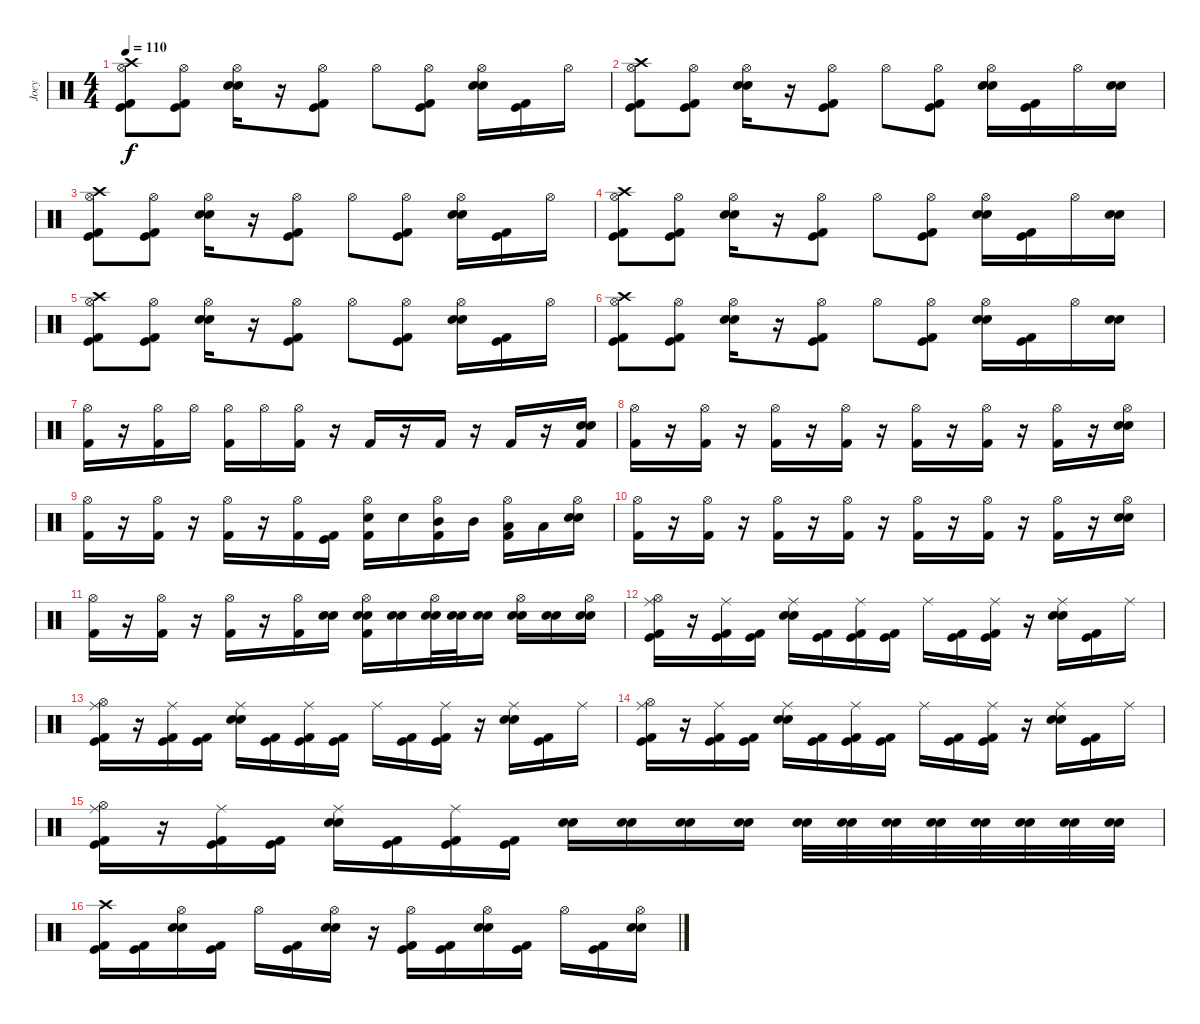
\track ("Joey" "Joey") {instrument percussion}
\staff {score}
\articulation defaults
\ts (4 4)
\tempo 110
\clef neutral
\ks c
("Crash high (hit)" "Hi-Hat (open)" "Kick (hit)" "Kick (hit) 2").8{dy f} ("Hi-Hat (open)" "Kick (hit)" "Kick (hit) 2").8 ("Hi-Hat (open)" "Snare (hit) 2" "Electric Snare (hit)").16 r.16 ("Hi-Hat (open)" "Kick (hit)" "Kick (hit) 2").8 "Hi-Hat (open)".8 ("Hi-Hat (open)" "Kick (hit)" "Kick (hit) 2").8 ("Hi-Hat (open)" "Snare (hit) 2" "Electric Snare (hit)").16 ("Kick (hit)" "Kick (hit) 2").16 "Hi-Hat (open)".16 |
("Crash high (hit)" "Hi-Hat (open)" "Kick (hit)" "Kick (hit) 2").8 ("Hi-Hat (open)" "Kick (hit)" "Kick (hit) 2").8 ("Hi-Hat (open)" "Snare (hit) 2" "Electric Snare (hit)").16 r.16 ("Hi-Hat (open)" "Kick (hit)" "Kick (hit) 2").8 "Hi-Hat (open)".8 ("Hi-Hat (open)" "Kick (hit)" "Kick (hit) 2").8 ("Hi-Hat (open)" "Snare (hit) 2" "Electric Snare (hit)").16 ("Kick (hit)" "Kick (hit) 2").16 "Hi-Hat (open)".16 ("Snare (hit) 2" "Electric Snare (hit)").16 |
("Crash high (hit)" "Hi-Hat (open)" "Kick (hit)" "Kick (hit) 2").8 ("Hi-Hat (open)" "Kick (hit)" "Kick (hit) 2").8 ("Hi-Hat (open)" "Snare (hit) 2" "Electric Snare (hit)").16 r.16 ("Hi-Hat (open)" "Kick (hit)" "Kick (hit) 2").8 "Hi-Hat (open)".8 ("Hi-Hat (open)" "Kick (hit)" "Kick (hit) 2").8 ("Hi-Hat (open)" "Snare (hit) 2" "Electric Snare (hit)").16 ("Kick (hit)" "Kick (hit) 2").16 "Hi-Hat (open)".16 |
("Crash high (hit)" "Hi-Hat (open)" "Kick (hit)" "Kick (hit) 2").8 ("Hi-Hat (open)" "Kick (hit)" "Kick (hit) 2").8 ("Hi-Hat (open)" "Snare (hit) 2" "Electric Snare (hit)").16 r.16 ("Hi-Hat (open)" "Kick (hit)" "Kick (hit) 2").8 "Hi-Hat (open)".8 ("Hi-Hat (open)" "Kick (hit)" "Kick (hit) 2").8 ("Hi-Hat (open)" "Snare (hit) 2" "Electric Snare (hit)").16 ("Kick (hit)" "Kick (hit) 2").16 "Hi-Hat (open)".16 ("Snare (hit) 2" "Electric Snare (hit)").16 |
("Crash high (hit)" "Hi-Hat (open)" "Kick (hit)" "Kick (hit) 2").8 ("Hi-Hat (open)" "Kick (hit)" "Kick (hit) 2").8 ("Hi-Hat (open)" "Snare (hit) 2" "Electric Snare (hit)").16 r.16 ("Hi-Hat (open)" "Kick (hit)" "Kick (hit) 2").8 "Hi-Hat (open)".8 ("Hi-Hat (open)" "Kick (hit)" "Kick (hit) 2").8 ("Hi-Hat (open)" "Snare (hit) 2" "Electric Snare (hit)").16 ("Kick (hit)" "Kick (hit) 2").16 "Hi-Hat (open)".16 |
("Crash high (hit)" "Hi-Hat (open)" "Kick (hit)" "Kick (hit) 2").8 ("Hi-Hat (open)" "Kick (hit)" "Kick (hit) 2").8 ("Hi-Hat (open)" "Snare (hit) 2" "Electric Snare (hit)").16 r.16 ("Hi-Hat (open)" "Kick (hit)" "Kick (hit) 2").8 "Hi-Hat (open)".8 ("Hi-Hat (open)" "Kick (hit)" "Kick (hit) 2").8 ("Hi-Hat (open)" "Snare (hit) 2" "Electric Snare (hit)").16 ("Kick (hit)" "Kick (hit) 2").16 "Hi-Hat (open)".16 ("Snare (hit) 2" "Electric Snare (hit)").16 |
("Hi-Hat (open)" "Kick (hit) 2").16 r.16 ("Hi-Hat (open)" "Kick (hit) 2").16 "Hi-Hat (open)".16 ("Hi-Hat (open)" "Kick (hit) 2").16 "Hi-Hat (open)".16 ("Hi-Hat (open)" "Kick (hit) 2").16 r.16 "Kick (hit) 2".16 r.16 "Kick (hit) 2".16 r.16 "Kick (hit) 2".16 r.16 ("Snare (hit) 2" "Electric Snare (hit)" "Kick (hit) 2").16 |
("Hi-Hat (open)" "Kick (hit) 2").16 r.16 ("Hi-Hat (open)" "Kick (hit) 2").16 r.16 ("Hi-Hat (open)" "Kick (hit) 2").16 r.16 ("Hi-Hat (open)" "Kick (hit) 2").16 r.16 ("Hi-Hat (open)" "Kick (hit) 2").16 r.16 ("Hi-Hat (open)" "Kick (hit) 2").16 r.16 ("Hi-Hat (open)" "Kick (hit) 2").16 r.16 ("Hi-Hat (open)" "Snare (hit) 2" "Electric Snare (hit)").16 |
("Hi-Hat (open)" "Kick (hit) 2").16 r.16 ("Hi-Hat (open)" "Kick (hit) 2").16 r.16 ("Hi-Hat (open)" "Kick (hit) 2").16 r.16 ("Hi-Hat (open)" "Kick (hit) 2").16 ("Kick (hit)" "Kick (hit) 2").16 ("Hi-Hat (open)" "Electric Snare (hit)" "Kick (hit) 2").16 "Electric Snare (hit)".16 ("Hi-Hat (open)" "Mid Tom (hit)" "Kick (hit) 2").16 "Mid Tom (hit)".16 ("Hi-Hat (open)" "Low Tom (hit)" "Kick (hit) 2").16 "Low Tom (hit)".16 ("Hi-Hat (open)" "Snare (hit) 2" "Electric Snare (hit)").16 |
("Hi-Hat (open)" "Kick (hit) 2").16 r.16 ("Hi-Hat (open)" "Kick (hit) 2").16 r.16 ("Hi-Hat (open)" "Kick (hit) 2").16 r.16 ("Hi-Hat (open)" "Kick (hit) 2").16 r.16 ("Hi-Hat (open)" "Kick (hit) 2").16 r.16 ("Hi-Hat (open)" "Kick (hit) 2").16 r.16 ("Hi-Hat (open)" "Kick (hit) 2").16 r.16 ("Hi-Hat (open)" "Snare (hit) 2" "Electric Snare (hit)").16 |
("Hi-Hat (open)" "Kick (hit) 2").16 r.16 ("Hi-Hat (open)" "Kick (hit) 2").16 r.16 ("Hi-Hat (open)" "Kick (hit) 2").16 r.16 ("Hi-Hat (open)" "Kick (hit) 2").16 ("Electric Snare (hit)" "Snare (hit) 2").16 ("Hi-Hat (open)" "Electric Snare (hit)" "Snare (hit) 2" "Kick (hit) 2").16 ("Electric Snare (hit)" "Snare (hit) 2").16 ("Hi-Hat (open)" "Electric Snare (hit)" "Snare (hit) 2").32 ("Electric Snare (hit)" "Snare (hit) 2").32 ("Electric Snare (hit)" "Snare (hit) 2").16 ("Hi-Hat (open)" "Electric Snare (hit)" "Snare (hit) 2").16 ("Electric Snare (hit)" "Snare (hit) 2").16 ("Hi-Hat (open)" "Electric Snare (hit)" "Snare (hit) 2").16 |
("Hi-Hat (open)" "Ride (middle)" "Kick (hit)" "Kick (hit) 2").16 r.16 ("Ride (middle)" "Kick (hit)" "Kick (hit) 2").16 ("Kick (hit)" "Kick (hit) 2").16 ("Ride (middle)" "Electric Snare (hit)" "Snare (hit) 2").16 ("Kick (hit)" "Kick (hit) 2").16 ("Ride (middle)" "Kick (hit)" "Kick (hit) 2").16 ("Kick (hit)" "Kick (hit) 2").16 "Ride (middle)".16 ("Kick (hit)" "Kick (hit) 2").16 ("Ride (middle)" "Kick (hit)" "Kick (hit) 2").16 r.16 ("Ride (middle)" "Electric Snare (hit)" "Snare (hit) 2").16 ("Kick (hit)" "Kick (hit) 2").16 "Ride (middle)".16 |
("Hi-Hat (open)" "Ride (middle)" "Kick (hit)" "Kick (hit) 2").16 r.16 ("Ride (middle)" "Kick (hit)" "Kick (hit) 2").16 ("Kick (hit)" "Kick (hit) 2").16 ("Ride (middle)" "Electric Snare (hit)" "Snare (hit) 2").16 ("Kick (hit)" "Kick (hit) 2").16 ("Ride (middle)" "Kick (hit)" "Kick (hit) 2").16 ("Kick (hit)" "Kick (hit) 2").16 "Ride (middle)".16 ("Kick (hit)" "Kick (hit) 2").16 ("Ride (middle)" "Kick (hit)" "Kick (hit) 2").16 r.16 ("Ride (middle)" "Electric Snare (hit)" "Snare (hit) 2").16 ("Kick (hit)" "Kick (hit) 2").16 "Ride (middle)".16 |
("Hi-Hat (open)" "Ride (middle)" "Kick (hit)" "Kick (hit) 2").16 r.16 ("Ride (middle)" "Kick (hit)" "Kick (hit) 2").16 ("Kick (hit)" "Kick (hit) 2").16 ("Ride (middle)" "Electric Snare (hit)" "Snare (hit) 2").16 ("Kick (hit)" "Kick (hit) 2").16 ("Ride (middle)" "Kick (hit)" "Kick (hit) 2").16 ("Kick (hit)" "Kick (hit) 2").16 "Ride (middle)".16 ("Kick (hit)" "Kick (hit) 2").16 ("Ride (middle)" "Kick (hit)" "Kick (hit) 2").16 r.16 ("Ride (middle)" "Electric Snare (hit)" "Snare (hit) 2").16 ("Kick (hit)" "Kick (hit) 2").16 "Ride (middle)".16 |
("Hi-Hat (open)" "Ride (middle)" "Kick (hit)" "Kick (hit) 2").16 r.16 ("Ride (middle)" "Kick (hit)" "Kick (hit) 2").16 ("Kick (hit)" "Kick (hit) 2").16 ("Ride (middle)" "Electric Snare (hit)" "Snare (hit) 2").16 ("Kick (hit)" "Kick (hit) 2").16 ("Ride (middle)" "Kick (hit)" "Kick (hit) 2").16 ("Kick (hit)" "Kick (hit) 2").16 ("Snare (hit) 2" "Electric Snare (hit)").16 ("Snare (hit) 2" "Electric Snare (hit)").16 ("Snare (hit) 2" "Electric Snare (hit)").16 ("Snare (hit) 2" "Electric Snare (hit)").16 ("Snare (hit) 2" "Electric Snare (hit)").32 ("Snare (hit) 2" "Electric Snare (hit)").32 ("Snare (hit) 2" "Electric Snare (hit)").32 ("Snare (hit) 2" "Electric Snare (hit)").32 ("Snare (hit) 2" "Electric Snare (hit)").32 ("Snare (hit) 2" "Electric Snare (hit)").32 ("Snare (hit) 2" "Electric Snare (hit)").32 ("Snare (hit) 2" "Electric Snare (hit)").32 |
("Crash high (hit)" "Kick (hit)" "Kick (hit) 2").16 ("Kick (hit)" "Kick (hit) 2").16 ("Hi-Hat (open)" "Snare (hit) 2" "Electric Snare (hit)").16 ("Kick (hit)" "Kick (hit) 2").16 "Hi-Hat (open)".16 ("Kick (hit)" "Kick (hit) 2").16 ("Hi-Hat (open)" "Snare (hit) 2" "Electric Snare (hit)").16 r.16 ("Hi-Hat (open)" "Kick (hit)" "Kick (hit) 2").16 ("Kick (hit)" "Kick (hit) 2").16 ("Hi-Hat (open)" "Snare (hit) 2" "Electric Snare (hit)").16 ("Kick (hit)" "Kick (hit) 2").16 "Hi-Hat (open)".16 ("Kick (hit)" "Kick (hit) 2").16 ("Hi-Hat (open)" "Snare (hit) 2" "Electric Snare (hit)").16
